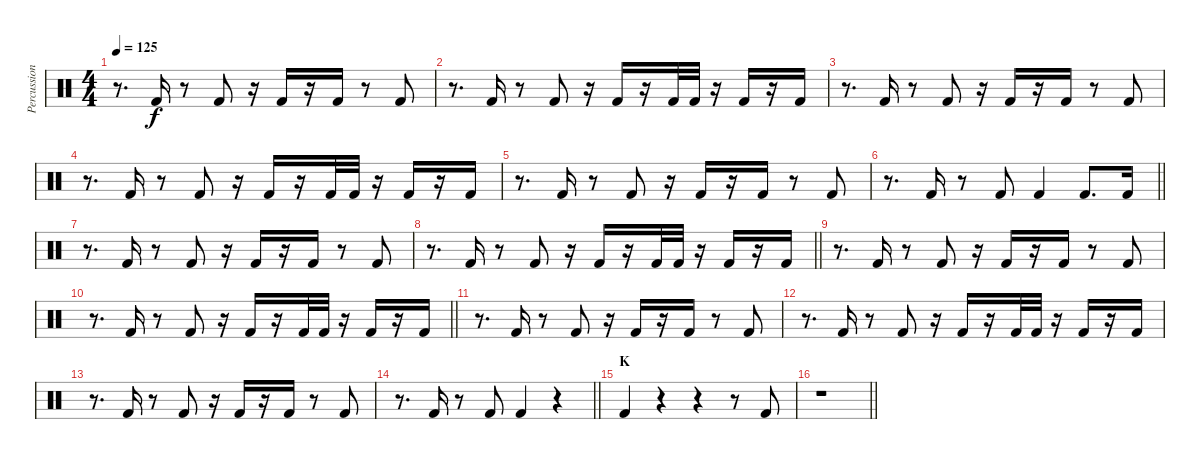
\track ("Percussion (Bass Drum)" "Percussion") {instrument percussion}
\staff {score}
\articulation defaults
\ts (4 4)
\tempo 125
\clef neutral
\ks c
r.8{d dy f} "Kick (hit) 2".16 r.8 "Kick (hit) 2".8 r.16 "Kick (hit) 2".16 r.16 "Kick (hit) 2".16 r.8 "Kick (hit) 2".8 |
r.8{d} "Kick (hit) 2".16 r.8 "Kick (hit) 2".8 r.16 "Kick (hit) 2".16 r.16 "Kick (hit) 2".32 "Kick (hit) 2".32 r.16 "Kick (hit) 2".16 r.16 "Kick (hit) 2".16 |
r.8{d} "Kick (hit) 2".16 r.8 "Kick (hit) 2".8 r.16 "Kick (hit) 2".16 r.16 "Kick (hit) 2".16 r.8 "Kick (hit) 2".8 |
r.8{d} "Kick (hit) 2".16 r.8 "Kick (hit) 2".8 r.16 "Kick (hit) 2".16 r.16 "Kick (hit) 2".32 "Kick (hit) 2".32 r.16 "Kick (hit) 2".16 r.16 "Kick (hit) 2".16 |
r.8{d} "Kick (hit) 2".16 r.8 "Kick (hit) 2".8 r.16 "Kick (hit) 2".16 r.16 "Kick (hit) 2".16 r.8 "Kick (hit) 2".8 |
\barLineRight lightlight
r.8{d} "Kick (hit) 2".16 r.8 "Kick (hit) 2".8 "Kick (hit) 2".4 "Kick (hit) 2".8{d} "Kick (hit) 2".16 |
r.8{d} "Kick (hit) 2".16 r.8 "Kick (hit) 2".8 r.16 "Kick (hit) 2".16 r.16 "Kick (hit) 2".16 r.8 "Kick (hit) 2".8 |
\barLineRight lightlight
r.8{d} "Kick (hit) 2".16 r.8 "Kick (hit) 2".8 r.16 "Kick (hit) 2".16 r.16 "Kick (hit) 2".32 "Kick (hit) 2".32 r.16 "Kick (hit) 2".16 r.16 "Kick (hit) 2".16 |
r.8{d} "Kick (hit) 2".16 r.8 "Kick (hit) 2".8 r.16 "Kick (hit) 2".16 r.16 "Kick (hit) 2".16 r.8 "Kick (hit) 2".8 |
\barLineRight lightlight
r.8{d} "Kick (hit) 2".16 r.8 "Kick (hit) 2".8 r.16 "Kick (hit) 2".16 r.16 "Kick (hit) 2".32 "Kick (hit) 2".32 r.16 "Kick (hit) 2".16 r.16 "Kick (hit) 2".16 |
r.8{d} "Kick (hit) 2".16 r.8 "Kick (hit) 2".8 r.16 "Kick (hit) 2".16 r.16 "Kick (hit) 2".16 r.8 "Kick (hit) 2".8 |
r.8{d} "Kick (hit) 2".16 r.8 "Kick (hit) 2".8 r.16 "Kick (hit) 2".16 r.16 "Kick (hit) 2".32 "Kick (hit) 2".32 r.16 "Kick (hit) 2".16 r.16 "Kick (hit) 2".16 |
r.8{d} "Kick (hit) 2".16 r.8 "Kick (hit) 2".8 r.16 "Kick (hit) 2".16 r.16 "Kick (hit) 2".16 r.8 "Kick (hit) 2".8 |
\barLineRight lightlight
r.8{d} "Kick (hit) 2".16 r.8 "Kick (hit) 2".8 "Kick (hit) 2".4 r.4 |
\section ("" "K")
"Kick (hit) 2".4 r.4 r.4 r.8 "Kick (hit) 2".8 |
\barLineRight lightlight
r.1
